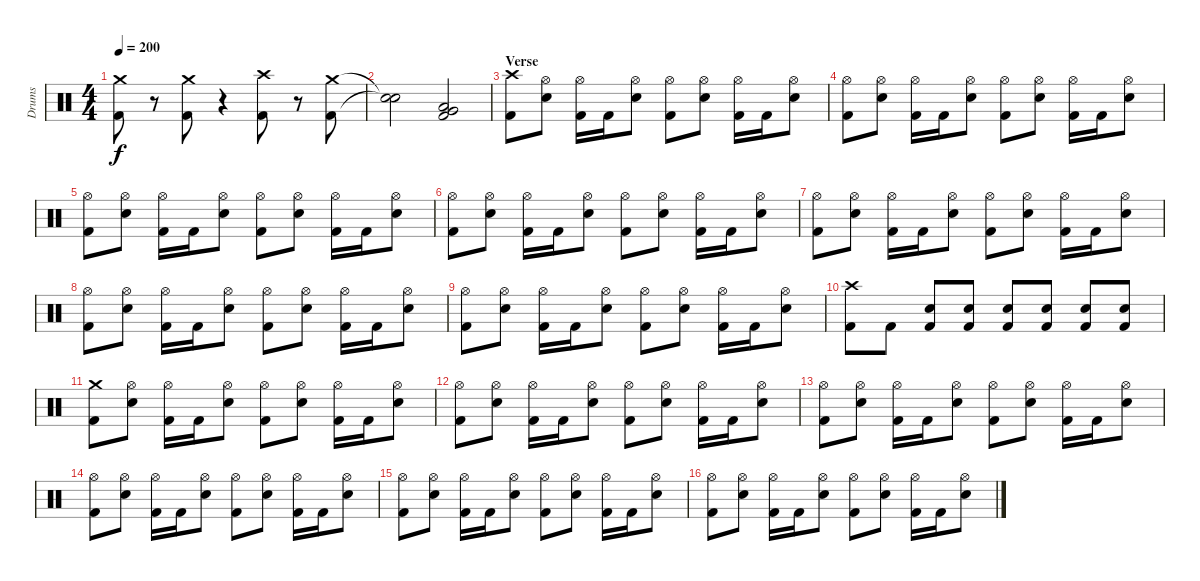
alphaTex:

\track ("Drums" "Drums") {instrument percussion}
\staff {score}
\articulation defaults
\ts (4 4)
\tempo 200
\clef neutral
\ks c
("Kick (hit) 2" "Crash medium (hit)").8{dy f} r.8 ("Kick (hit) 2" "Crash medium (hit)").8 r.4 ("Kick (hit) 2" "Crash high (hit)").8 r.8 ("Kick (hit) 2" "Crash medium (hit)").8 |
("Snare (hit)"{t} "Snare (hit)"{t}).2 ("Kick (hit) 2" "Very Low Tom (hit)" "Low Floor Tom (hit)").2 |
\section ("" "Verse")
("Kick (hit) 2" "Crash high (hit)").8 ("Snare (hit) 2" "Hi-Hat (open)").8 ("Kick (hit) 2" "Hi-Hat (open)").16 "Kick (hit) 2".16 ("Snare (hit) 2" "Hi-Hat (open)").8 ("Kick (hit) 2" "Hi-Hat (open)").8 ("Snare (hit) 2" "Hi-Hat (open)").8 ("Kick (hit) 2" "Hi-Hat (open)").16 "Kick (hit) 2".16 ("Snare (hit) 2" "Hi-Hat (open)").8 |
("Kick (hit) 2" "Hi-Hat (open)").8 ("Snare (hit) 2" "Hi-Hat (open)").8 ("Kick (hit) 2" "Hi-Hat (open)").16 "Kick (hit) 2".16 ("Snare (hit) 2" "Hi-Hat (open)").8 ("Kick (hit) 2" "Hi-Hat (open)").8 ("Snare (hit) 2" "Hi-Hat (open)").8 ("Kick (hit) 2" "Hi-Hat (open)").16 "Kick (hit) 2".16 ("Snare (hit) 2" "Hi-Hat (open)").8 |
("Kick (hit) 2" "Hi-Hat (open)").8 ("Snare (hit) 2" "Hi-Hat (open)").8 ("Kick (hit) 2" "Hi-Hat (open)").16 "Kick (hit) 2".16 ("Snare (hit) 2" "Hi-Hat (open)").8 ("Kick (hit) 2" "Hi-Hat (open)").8 ("Snare (hit) 2" "Hi-Hat (open)").8 ("Kick (hit) 2" "Hi-Hat (open)").16 "Kick (hit) 2".16 ("Snare (hit) 2" "Hi-Hat (open)").8 |
("Kick (hit) 2" "Hi-Hat (open)").8 ("Snare (hit) 2" "Hi-Hat (open)").8 ("Kick (hit) 2" "Hi-Hat (open)").16 "Kick (hit) 2".16 ("Snare (hit) 2" "Hi-Hat (open)").8 ("Kick (hit) 2" "Hi-Hat (open)").8 ("Snare (hit) 2" "Hi-Hat (open)").8 ("Kick (hit) 2" "Hi-Hat (open)").16 "Kick (hit) 2".16 ("Snare (hit) 2" "Hi-Hat (open)").8 |
("Kick (hit) 2" "Hi-Hat (open)").8 ("Snare (hit) 2" "Hi-Hat (open)").8 ("Kick (hit) 2" "Hi-Hat (open)").16 "Kick (hit) 2".16 ("Snare (hit) 2" "Hi-Hat (open)").8 ("Kick (hit) 2" "Hi-Hat (open)").8 ("Snare (hit) 2" "Hi-Hat (open)").8 ("Kick (hit) 2" "Hi-Hat (open)").16 "Kick (hit) 2".16 ("Snare (hit) 2" "Hi-Hat (open)").8 |
("Kick (hit) 2" "Hi-Hat (open)").8 ("Snare (hit) 2" "Hi-Hat (open)").8 ("Kick (hit) 2" "Hi-Hat (open)").16 "Kick (hit) 2".16 ("Snare (hit) 2" "Hi-Hat (open)").8 ("Kick (hit) 2" "Hi-Hat (open)").8 ("Snare (hit) 2" "Hi-Hat (open)").8 ("Kick (hit) 2" "Hi-Hat (open)").16 "Kick (hit) 2".16 ("Snare (hit) 2" "Hi-Hat (open)").8 |
("Kick (hit) 2" "Hi-Hat (open)").8 ("Snare (hit) 2" "Hi-Hat (open)").8 ("Kick (hit) 2" "Hi-Hat (open)").16 "Kick (hit) 2".16 ("Snare (hit) 2" "Hi-Hat (open)").8 ("Kick (hit) 2" "Hi-Hat (open)").8 ("Snare (hit) 2" "Hi-Hat (open)").8 ("Kick (hit) 2" "Hi-Hat (open)").16 "Kick (hit) 2".16 ("Snare (hit) 2" "Hi-Hat (open)").8 |
("Kick (hit) 2" "Crash high (hit)").8 "Kick (hit) 2".8 ("Kick (hit) 2" "Snare (hit) 2").8 ("Kick (hit) 2" "Snare (hit) 2").8 ("Kick (hit) 2" "Snare (hit) 2").8 ("Kick (hit) 2" "Snare (hit) 2").8 ("Kick (hit) 2" "Snare (hit) 2").8 ("Kick (hit) 2" "Snare (hit) 2").8 |
\section ("" "")
("Kick (hit) 2" "Crash medium (hit)").8 ("Snare (hit) 2" "Hi-Hat (open)").8 ("Kick (hit) 2" "Hi-Hat (open)").16 "Kick (hit) 2".16 ("Snare (hit) 2" "Hi-Hat (open)").8 ("Kick (hit) 2" "Hi-Hat (open)").8 ("Snare (hit) 2" "Hi-Hat (open)").8 ("Kick (hit) 2" "Hi-Hat (open)").16 "Kick (hit) 2".16 ("Snare (hit) 2" "Hi-Hat (open)").8 |
("Kick (hit) 2" "Hi-Hat (open)").8 ("Snare (hit) 2" "Hi-Hat (open)").8 ("Kick (hit) 2" "Hi-Hat (open)").16 "Kick (hit) 2".16 ("Snare (hit) 2" "Hi-Hat (open)").8 ("Kick (hit) 2" "Hi-Hat (open)").8 ("Snare (hit) 2" "Hi-Hat (open)").8 ("Kick (hit) 2" "Hi-Hat (open)").16 "Kick (hit) 2".16 ("Snare (hit) 2" "Hi-Hat (open)").8 |
("Kick (hit) 2" "Hi-Hat (open)").8 ("Snare (hit) 2" "Hi-Hat (open)").8 ("Kick (hit) 2" "Hi-Hat (open)").16 "Kick (hit) 2".16 ("Snare (hit) 2" "Hi-Hat (open)").8 ("Kick (hit) 2" "Hi-Hat (open)").8 ("Snare (hit) 2" "Hi-Hat (open)").8 ("Kick (hit) 2" "Hi-Hat (open)").16 "Kick (hit) 2".16 ("Snare (hit) 2" "Hi-Hat (open)").8 |
("Kick (hit) 2" "Hi-Hat (open)").8 ("Snare (hit) 2" "Hi-Hat (open)").8 ("Kick (hit) 2" "Hi-Hat (open)").16 "Kick (hit) 2".16 ("Snare (hit) 2" "Hi-Hat (open)").8 ("Kick (hit) 2" "Hi-Hat (open)").8 ("Snare (hit) 2" "Hi-Hat (open)").8 ("Kick (hit) 2" "Hi-Hat (open)").16 "Kick (hit) 2".16 ("Snare (hit) 2" "Hi-Hat (open)").8 |
("Kick (hit) 2" "Hi-Hat (open)").8 ("Snare (hit) 2" "Hi-Hat (open)").8 ("Kick (hit) 2" "Hi-Hat (open)").16 "Kick (hit) 2".16 ("Snare (hit) 2" "Hi-Hat (open)").8 ("Kick (hit) 2" "Hi-Hat (open)").8 ("Snare (hit) 2" "Hi-Hat (open)").8 ("Kick (hit) 2" "Hi-Hat (open)").16 "Kick (hit) 2".16 ("Snare (hit) 2" "Hi-Hat (open)").8 |
("Kick (hit) 2" "Hi-Hat (open)").8 ("Snare (hit) 2" "Hi-Hat (open)").8 ("Kick (hit) 2" "Hi-Hat (open)").16 "Kick (hit) 2".16 ("Snare (hit) 2" "Hi-Hat (open)").8 ("Kick (hit) 2" "Hi-Hat (open)").8 ("Snare (hit) 2" "Hi-Hat (open)").8 ("Kick (hit) 2" "Hi-Hat (open)").16 "Kick (hit) 2".16 ("Snare (hit) 2" "Hi-Hat (open)").8
